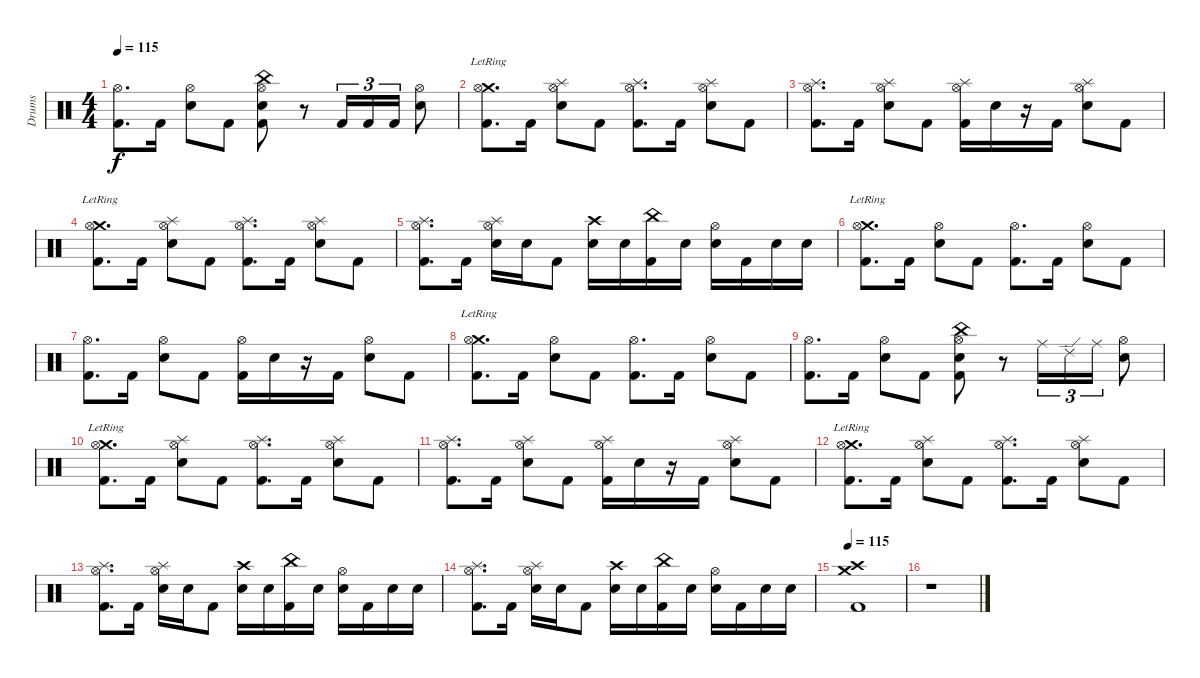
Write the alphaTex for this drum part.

\track ("Drums" "Drums") {instrument percussion}
\staff {score}
\articulation defaults
\ts (4 4)
\tempo 115
\clef neutral
\ks c
("Kick (hit) 2" "Hi-Hat (open)").8{d dy f} "Kick (hit) 2".16 ("Electric Snare (hit)" "Hi-Hat (open)").8 "Kick (hit) 2".8 ("China (hit)" "Electric Snare (hit)" "Kick (hit) 2" "Hi-Hat (open)").8 r.8 "Kick (hit) 2".16{tu (3 2)} "Kick (hit) 2".16{tu (3 2)} "Kick (hit) 2".16{tu (3 2)} ("Electric Snare (hit)" "Hi-Hat (open)").8 |
("Crash medium (hit)"{lr} "Kick (hit) 2" "Hi-Hat (open)").8{d} "Kick (hit) 2".16 ("Splash (hit)" "Electric Snare (hit)" "Hi-Hat (open)").8 "Kick (hit) 2".8 ("Splash (hit)" "Kick (hit) 2" "Hi-Hat (open)").8{d} "Kick (hit) 2".16 ("Splash (hit)" "Electric Snare (hit)" "Hi-Hat (open)").8 "Kick (hit) 2".8 |
("Splash (hit)" "Kick (hit) 2" "Hi-Hat (open)").8{d} "Kick (hit) 2".16 ("Splash (hit)" "Electric Snare (hit)" "Hi-Hat (open)").8 "Kick (hit) 2".8 ("Splash (hit)" "Kick (hit) 2" "Hi-Hat (open)").16 "Electric Snare (hit)".16 r.16 "Kick (hit) 2".16 ("Splash (hit)" "Electric Snare (hit)" "Hi-Hat (open)").8 "Kick (hit) 2".8 |
("Crash medium (hit)"{lr} "Kick (hit) 2" "Hi-Hat (open)").8{d} "Kick (hit) 2".16 ("Splash (hit)" "Electric Snare (hit)" "Hi-Hat (open)").8 "Kick (hit) 2".8 ("Splash (hit)" "Kick (hit) 2" "Hi-Hat (open)").8{d} "Kick (hit) 2".16 ("Splash (hit)" "Electric Snare (hit)" "Hi-Hat (open)").8 "Kick (hit) 2".8 |
("Splash (hit)" "Kick (hit) 2" "Hi-Hat (open)").8{d} "Kick (hit) 2".16 ("Splash (hit)" "Electric Snare (hit)" "Hi-Hat (open)").16 "Electric Snare (hit)".16 "Kick (hit) 2".8 ("Crash high (hit)" "Electric Snare (hit)").16 "Electric Snare (hit)".16 ("China (hit)" "Kick (hit) 2").16 "Electric Snare (hit)".16 ("Electric Snare (hit)" "Hi-Hat (open)").16 "Kick (hit) 2".16 "Electric Snare (hit)".16 "Electric Snare (hit)".16 |
("Crash medium (hit)"{lr} "Kick (hit) 2" "Hi-Hat (open)").8{d} "Kick (hit) 2".16 ("Electric Snare (hit)" "Hi-Hat (open)").8 "Kick (hit) 2".8 ("Kick (hit) 2" "Hi-Hat (open)").8{d} "Kick (hit) 2".16 ("Electric Snare (hit)" "Hi-Hat (open)").8 "Kick (hit) 2".8 |
("Kick (hit) 2" "Hi-Hat (open)").8{d} "Kick (hit) 2".16 ("Electric Snare (hit)" "Hi-Hat (open)").8 "Kick (hit) 2".8 ("Kick (hit) 2" "Hi-Hat (open)").16 "Electric Snare (hit)".16 r.16 "Kick (hit) 2".16 ("Electric Snare (hit)" "Hi-Hat (open)").8 "Kick (hit) 2".8 |
("Crash medium (hit)"{lr} "Kick (hit) 2" "Hi-Hat (open)").8{d} "Kick (hit) 2".16 ("Electric Snare (hit)" "Hi-Hat (open)").8 "Kick (hit) 2".8 ("Kick (hit) 2" "Hi-Hat (open)").8{d} "Kick (hit) 2".16 ("Electric Snare (hit)" "Hi-Hat (open)").8 "Kick (hit) 2".8 |
("Kick (hit) 2" "Hi-Hat (open)").8{d} "Kick (hit) 2".16 ("Electric Snare (hit)" "Hi-Hat (open)").8 "Kick (hit) 2".8 ("China (hit)" "Electric Snare (hit)" "Kick (hit) 2" "Hi-Hat (open)").8 r.8 "Ride (middle)".16{tu (3 2)} "Ride (edge) 2".16{tu (3 2)} "Ride (middle)".16{tu (3 2)} ("Electric Snare (hit)" "Hi-Hat (open)").8 |
("Crash medium (hit)"{lr} "Kick (hit) 2" "Hi-Hat (open)").8{d} "Kick (hit) 2".16 ("Splash (hit)" "Electric Snare (hit)" "Hi-Hat (open)").8 "Kick (hit) 2".8 ("Splash (hit)" "Kick (hit) 2" "Hi-Hat (open)").8{d} "Kick (hit) 2".16 ("Splash (hit)" "Electric Snare (hit)" "Hi-Hat (open)").8 "Kick (hit) 2".8 |
("Splash (hit)" "Kick (hit) 2" "Hi-Hat (open)").8{d} "Kick (hit) 2".16 ("Splash (hit)" "Electric Snare (hit)" "Hi-Hat (open)").8 "Kick (hit) 2".8 ("Splash (hit)" "Kick (hit) 2" "Hi-Hat (open)").16 "Electric Snare (hit)".16 r.16 "Kick (hit) 2".16 ("Splash (hit)" "Electric Snare (hit)" "Hi-Hat (open)").8 "Kick (hit) 2".8 |
("Crash medium (hit)"{lr} "Kick (hit) 2" "Hi-Hat (open)").8{d} "Kick (hit) 2".16 ("Splash (hit)" "Electric Snare (hit)" "Hi-Hat (open)").8 "Kick (hit) 2".8 ("Splash (hit)" "Kick (hit) 2" "Hi-Hat (open)").8{d} "Kick (hit) 2".16 ("Splash (hit)" "Electric Snare (hit)" "Hi-Hat (open)").8 "Kick (hit) 2".8 |
("Splash (hit)" "Kick (hit) 2" "Hi-Hat (open)").8{d} "Kick (hit) 2".16 ("Splash (hit)" "Electric Snare (hit)" "Hi-Hat (open)").16 "Electric Snare (hit)".16 "Kick (hit) 2".8 ("Crash high (hit)" "Electric Snare (hit)").16 "Electric Snare (hit)".16 ("China (hit)" "Kick (hit) 2").16 "Electric Snare (hit)".16 ("Electric Snare (hit)" "Hi-Hat (open)").16 "Kick (hit) 2".16 "Electric Snare (hit)".16 "Electric Snare (hit)".16 |
("Splash (hit)" "Kick (hit) 2" "Hi-Hat (open)").8{d} "Kick (hit) 2".16 ("Splash (hit)" "Electric Snare (hit)" "Hi-Hat (open)").16 "Electric Snare (hit)".16 "Kick (hit) 2".8 ("Crash high (hit)" "Electric Snare (hit)").16 "Electric Snare (hit)".16 ("China (hit)" "Kick (hit) 2").16 "Electric Snare (hit)".16 ("Electric Snare (hit)" "Hi-Hat (open)").16 "Kick (hit) 2".16 "Electric Snare (hit)".16 "Electric Snare (hit)".16 |
\tempo 115
("Kick (hit) 2" "Crash high (hit)" "Crash medium (hit)").1 |
r.1
